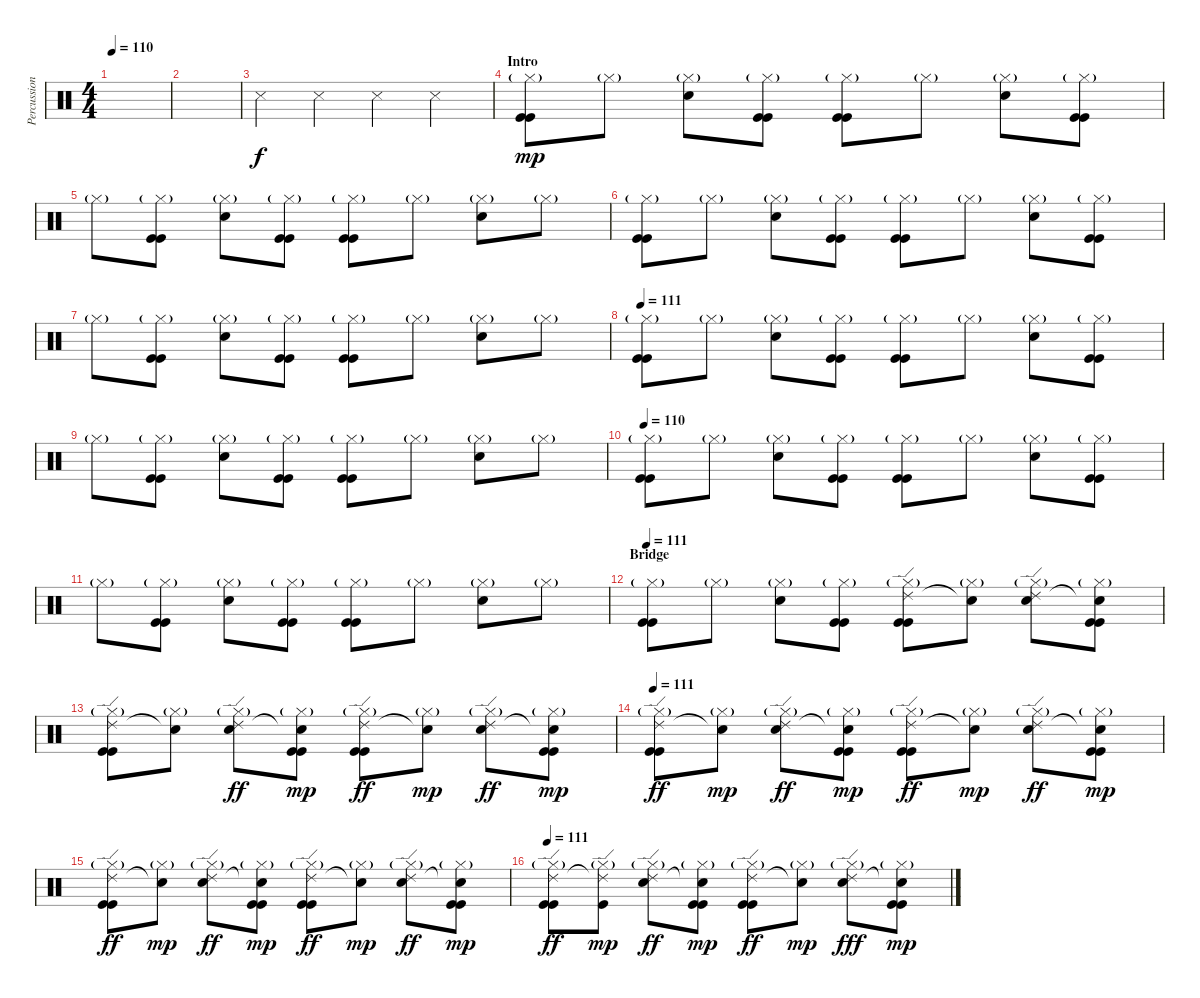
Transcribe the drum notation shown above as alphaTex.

\track ("Percussion" "Percussion") {instrument percussion}
\staff {score}
\articulation defaults
\ts (4 4)
\tempo 110
\clef neutral
\ks c
|
|
"Snare (side stick) 3".4{volume 14} "Snare (side stick) 3".4 "Snare (side stick) 3".4 "Snare (side stick) 3".4 |
\section ("" "Intro")
("Hi-Hat (closed)"{g} "Kick (hit)" "Kick (hit)").8{dy mp} "Hi-Hat (closed)"{g}.8 ("Hi-Hat (closed)"{g} "Snare (hit) 2").8 ("Hi-Hat (closed)"{g} "Kick (hit)" "Kick (hit)").8 ("Hi-Hat (closed)"{g} "Kick (hit)" "Kick (hit)").8 "Hi-Hat (closed)"{g}.8 ("Hi-Hat (closed)"{g} "Snare (hit) 2").8 ("Hi-Hat (closed)"{g} "Kick (hit)" "Kick (hit)").8 |
"Hi-Hat (closed)"{g}.8 ("Hi-Hat (closed)"{g} "Kick (hit)" "Kick (hit)").8 ("Hi-Hat (closed)"{g} "Snare (hit) 2").8 ("Hi-Hat (closed)"{g} "Kick (hit)" "Kick (hit)").8 ("Hi-Hat (closed)"{g} "Kick (hit)" "Kick (hit)").8 "Hi-Hat (closed)"{g}.8 ("Hi-Hat (closed)"{g} "Snare (hit) 2").8 "Hi-Hat (closed)"{g}.8 |
("Hi-Hat (closed)"{g} "Kick (hit)" "Kick (hit)").8 "Hi-Hat (closed)"{g}.8 ("Hi-Hat (closed)"{g} "Snare (hit) 2").8 ("Hi-Hat (closed)"{g} "Kick (hit)" "Kick (hit)").8 ("Hi-Hat (closed)"{g} "Kick (hit)" "Kick (hit)").8 "Hi-Hat (closed)"{g}.8 ("Hi-Hat (closed)"{g} "Snare (hit) 2").8 ("Hi-Hat (closed)"{g} "Kick (hit)" "Kick (hit)").8 |
"Hi-Hat (closed)"{g}.8 ("Hi-Hat (closed)"{g} "Kick (hit)" "Kick (hit)").8 ("Hi-Hat (closed)"{g} "Snare (hit) 2").8 ("Hi-Hat (closed)"{g} "Kick (hit)" "Kick (hit)").8 ("Hi-Hat (closed)"{g} "Kick (hit)" "Kick (hit)").8 "Hi-Hat (closed)"{g}.8 ("Hi-Hat (closed)"{g} "Snare (hit) 2").8 "Hi-Hat (closed)"{g}.8 |
\tempo 111
("Hi-Hat (closed)"{g} "Kick (hit)" "Kick (hit)").8 "Hi-Hat (closed)"{g}.8 ("Hi-Hat (closed)"{g} "Snare (hit) 2").8 ("Hi-Hat (closed)"{g} "Kick (hit)" "Kick (hit)").8 ("Hi-Hat (closed)"{g} "Kick (hit)" "Kick (hit)").8 "Hi-Hat (closed)"{g}.8 ("Hi-Hat (closed)"{g} "Snare (hit) 2").8 ("Hi-Hat (closed)"{g} "Kick (hit)" "Kick (hit)").8 |
"Hi-Hat (closed)"{g}.8 ("Hi-Hat (closed)"{g} "Kick (hit)" "Kick (hit)").8 ("Hi-Hat (closed)"{g} "Snare (hit) 2").8 ("Hi-Hat (closed)"{g} "Kick (hit)" "Kick (hit)").8 ("Hi-Hat (closed)"{g} "Kick (hit)" "Kick (hit)").8 "Hi-Hat (closed)"{g}.8 ("Hi-Hat (closed)"{g} "Snare (hit) 2").8 "Hi-Hat (closed)"{g}.8 |
\tempo 110
("Hi-Hat (closed)"{g} "Kick (hit)" "Kick (hit)").8 "Hi-Hat (closed)"{g}.8 ("Hi-Hat (closed)"{g} "Snare (hit) 2").8 ("Hi-Hat (closed)"{g} "Kick (hit)" "Kick (hit)").8 ("Hi-Hat (closed)"{g} "Kick (hit)" "Kick (hit)").8 "Hi-Hat (closed)"{g}.8 ("Hi-Hat (closed)"{g} "Snare (hit) 2").8 ("Hi-Hat (closed)"{g} "Kick (hit)" "Kick (hit)").8 |
"Hi-Hat (closed)"{g}.8 ("Hi-Hat (closed)"{g} "Kick (hit)" "Kick (hit)").8 ("Hi-Hat (closed)"{g} "Snare (hit) 2").8 ("Hi-Hat (closed)"{g} "Kick (hit)" "Kick (hit)").8 ("Hi-Hat (closed)"{g} "Kick (hit)" "Kick (hit)").8 "Hi-Hat (closed)"{g}.8 ("Hi-Hat (closed)"{g} "Snare (hit) 2").8 "Hi-Hat (closed)"{g}.8 |
\section ("" "Bridge")
\tempo 111
("Hi-Hat (closed)"{g} "Kick (hit)" "Kick (hit)").8 "Hi-Hat (closed)"{g}.8 ("Hi-Hat (closed)"{g} "Snare (hit) 2").8 ("Hi-Hat (closed)"{g} "Kick (hit)" "Kick (hit)").8 ("Hi-Hat (closed)"{g} "Ride (edge) 2" "Kick (hit)" "Kick (hit)").8 ("Hi-Hat (closed)"{g} "Snare (hit)"{t}).8 ("Hi-Hat (closed)"{g} "Ride (edge) 2" "Snare (hit) 2").8 ("Hi-Hat (closed)"{g} "Snare (hit)"{t} "Kick (hit)" "Kick (hit)").8 |
("Hi-Hat (closed)"{g} "Ride (edge) 2" "Kick (hit)" "Kick (hit)").8 ("Hi-Hat (closed)"{g} "Snare (hit)"{t}).8 ("Hi-Hat (closed)"{g} "Ride (edge) 2" "Snare (hit) 2").8{dy ff} ("Hi-Hat (closed)"{g} "Snare (hit)"{t} "Kick (hit)" "Kick (hit)").8{dy mp} ("Hi-Hat (closed)"{g} "Ride (edge) 2" "Kick (hit)" "Kick (hit)").8{dy ff} ("Hi-Hat (closed)"{g} "Snare (hit)"{t}).8{dy mp} ("Hi-Hat (closed)"{g} "Ride (edge) 2" "Snare (hit) 2").8{dy ff} ("Hi-Hat (closed)"{g} "Snare (hit)"{t} "Kick (hit)" "Kick (hit)").8{dy mp} |
\tempo 111
("Hi-Hat (closed)"{g} "Ride (edge) 2" "Kick (hit)" "Kick (hit)").8{dy ff} ("Hi-Hat (closed)"{g} "Snare (hit)"{t}).8{dy mp} ("Hi-Hat (closed)"{g} "Ride (edge) 2" "Snare (hit) 2").8{dy ff} ("Hi-Hat (closed)"{g} "Snare (hit)"{t} "Kick (hit)" "Kick (hit)").8{dy mp} ("Hi-Hat (closed)"{g} "Ride (edge) 2" "Kick (hit)" "Kick (hit)").8{dy ff} ("Hi-Hat (closed)"{g} "Snare (hit)"{t}).8{dy mp} ("Hi-Hat (closed)"{g} "Ride (edge) 2" "Snare (hit) 2").8{dy ff} ("Hi-Hat (closed)"{g} "Snare (hit)"{t} "Kick (hit)" "Kick (hit)").8{dy mp} |
("Hi-Hat (closed)"{g} "Ride (edge) 2" "Kick (hit)" "Kick (hit)").8{dy ff} ("Hi-Hat (closed)"{g} "Snare (hit)"{t}).8{dy mp} ("Hi-Hat (closed)"{g} "Ride (edge) 2" "Snare (hit) 2").8{dy ff} ("Hi-Hat (closed)"{g} "Snare (hit)"{t} "Kick (hit)" "Kick (hit)").8{dy mp} ("Hi-Hat (closed)"{g} "Ride (edge) 2" "Kick (hit)" "Kick (hit)").8{dy ff} ("Hi-Hat (closed)"{g} "Snare (hit)"{t}).8{dy mp} ("Hi-Hat (closed)"{g} "Ride (edge) 2" "Snare (hit) 2").8{dy ff} ("Hi-Hat (closed)"{g} "Snare (hit)"{t} "Kick (hit)" "Kick (hit)").8{dy mp} |
\tempo 111
("Hi-Hat (closed)"{g} "Ride (edge) 2" "Kick (hit)" "Kick (hit)").8{dy ff} ("Hi-Hat (closed)"{g} "Ride (edge) 2"{t} "Kick (hit)").8{dy mp} ("Hi-Hat (closed)"{g} "Ride (edge) 2" "Snare (hit) 2").8{dy ff} ("Hi-Hat (closed)"{g} "Snare (hit)"{t} "Kick (hit)" "Kick (hit)").8{dy mp} ("Hi-Hat (closed)"{g} "Ride (edge) 2" "Kick (hit)" "Kick (hit)").8{dy ff} ("Hi-Hat (closed)"{g} "Snare (hit)"{t}).8{dy mp} ("Hi-Hat (closed)"{g} "Ride (edge) 2" "Snare (hit) 2").8{dy fff} ("Hi-Hat (closed)"{g} "Snare (hit)"{t} "Kick (hit)" "Kick (hit)").8{dy mp}
